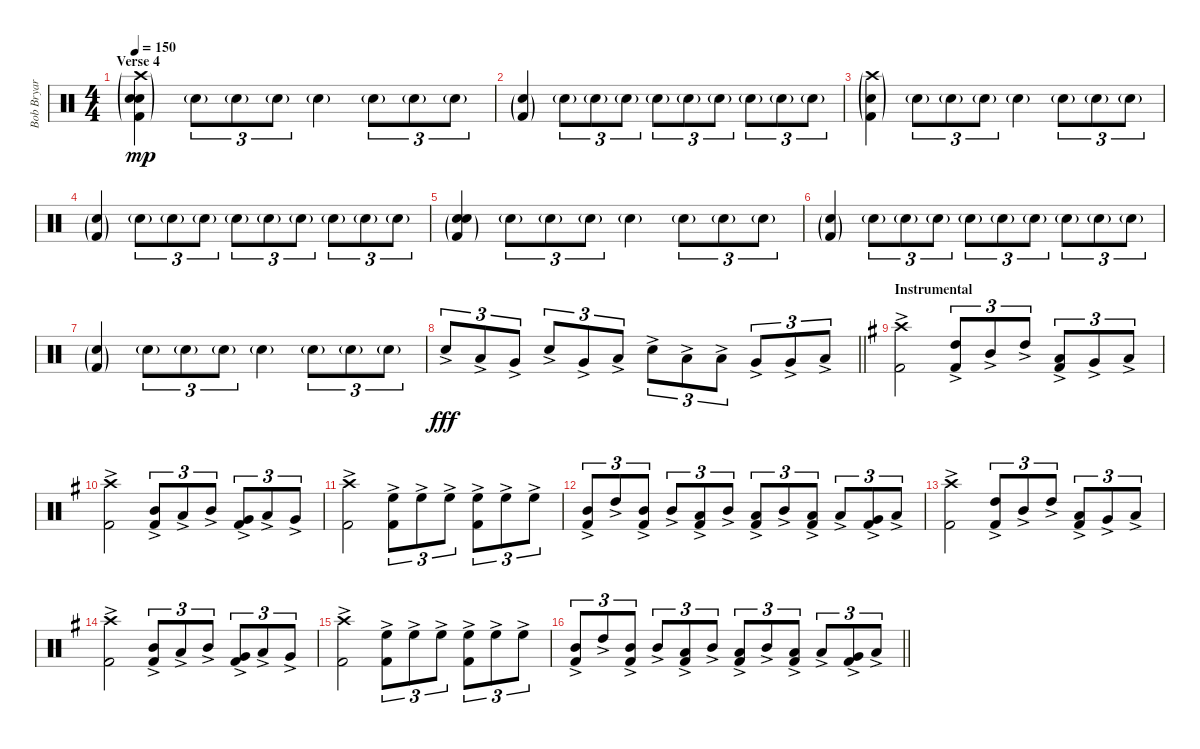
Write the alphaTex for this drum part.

\track ("Bob Bryar (percussion)" "Bob Bryar ") {instrument percussion}
\staff {score}
\articulation defaults
\ts (4 4)
\section ("" "Verse 4")
\tempo 150
\clef neutral
\ks c
("Crash high (hit)"{g} "Metronome (bell)"{g} "Electric Snare (hit)"{g} "Kick (hit) 2"{g}).4{dy mp volume 11} "Electric Snare (hit)"{g}.8{tu (3 2)} "Electric Snare (hit)"{g}.8{tu (3 2)} "Electric Snare (hit)"{g}.8{tu (3 2)} "Electric Snare (hit)"{g}.4 "Electric Snare (hit)"{g}.8{tu (3 2)} "Electric Snare (hit)"{g}.8{tu (3 2)} "Electric Snare (hit)"{g}.8{tu (3 2)} |
("Electric Snare (hit)"{g} "Kick (hit) 2"{g}).4 "Electric Snare (hit)"{g}.8{tu (3 2)} "Electric Snare (hit)"{g}.8{tu (3 2)} "Electric Snare (hit)"{g}.8{tu (3 2)} "Electric Snare (hit)"{g}.8{tu (3 2)} "Electric Snare (hit)"{g}.8{tu (3 2)} "Electric Snare (hit)"{g}.8{tu (3 2)} "Electric Snare (hit)"{g}.8{tu (3 2)} "Electric Snare (hit)"{g}.8{tu (3 2)} "Electric Snare (hit)"{g}.8{tu (3 2)} |
("Crash high (hit)"{g} "Electric Snare (hit)"{g} "Kick (hit) 2"{g}).4 "Electric Snare (hit)"{g}.8{tu (3 2)} "Electric Snare (hit)"{g}.8{tu (3 2)} "Electric Snare (hit)"{g}.8{tu (3 2)} "Electric Snare (hit)"{g}.4 "Electric Snare (hit)"{g}.8{tu (3 2)} "Electric Snare (hit)"{g}.8{tu (3 2)} "Electric Snare (hit)"{g}.8{tu (3 2)} |
("Electric Snare (hit)"{g} "Kick (hit) 2"{g}).4 "Electric Snare (hit)"{g}.8{tu (3 2)} "Electric Snare (hit)"{g}.8{tu (3 2)} "Electric Snare (hit)"{g}.8{tu (3 2)} "Electric Snare (hit)"{g}.8{tu (3 2)} "Electric Snare (hit)"{g}.8{tu (3 2)} "Electric Snare (hit)"{g}.8{tu (3 2)} "Electric Snare (hit)"{g}.8{tu (3 2)} "Electric Snare (hit)"{g}.8{tu (3 2)} "Electric Snare (hit)"{g}.8{tu (3 2)} |
("Metronome (bell)"{g} "Electric Snare (hit)"{g} "Kick (hit) 2"{g}).4 "Electric Snare (hit)"{g}.8{tu (3 2)} "Electric Snare (hit)"{g}.8{tu (3 2)} "Electric Snare (hit)"{g}.8{tu (3 2)} "Electric Snare (hit)"{g}.4 "Electric Snare (hit)"{g}.8{tu (3 2)} "Electric Snare (hit)"{g}.8{tu (3 2)} "Electric Snare (hit)"{g}.8{tu (3 2)} |
("Electric Snare (hit)"{g} "Kick (hit) 2"{g}).4 "Electric Snare (hit)"{g}.8{tu (3 2)} "Electric Snare (hit)"{g}.8{tu (3 2)} "Electric Snare (hit)"{g}.8{tu (3 2)} "Electric Snare (hit)"{g}.8{tu (3 2)} "Electric Snare (hit)"{g}.8{tu (3 2)} "Electric Snare (hit)"{g}.8{tu (3 2)} "Electric Snare (hit)"{g}.8{tu (3 2)} "Electric Snare (hit)"{g}.8{tu (3 2)} "Electric Snare (hit)"{g}.8{tu (3 2)} |
("Electric Snare (hit)"{g} "Kick (hit) 2"{g}).4 "Electric Snare (hit)"{g}.8{tu (3 2)} "Electric Snare (hit)"{g}.8{tu (3 2)} "Electric Snare (hit)"{g}.8{tu (3 2)} "Electric Snare (hit)"{g}.4 "Electric Snare (hit)"{g}.8{tu (3 2)} "Electric Snare (hit)"{g}.8{tu (3 2)} "Electric Snare (hit)"{g}.8{tu (3 2)} |
\barLineRight lightlight "Electric Snare (hit)"{ac}.8{tu (3 2) dy fff volume 11} "Low Tom (hit)"{ac}.8{tu (3 2)} "Very Low Tom (hit)"{ac}.8{tu (3 2)} "Electric Snare (hit)"{ac}.8{tu (3 2)} "Very Low Tom (hit)"{ac}.8{tu (3 2)} "Low Floor Tom (hit)"{ac}.8{tu (3 2)} "Electric Snare (hit)"{ac}.8{tu (3 2)} "Low Tom (hit)"{ac}.8{tu (3 2)} "Low Tom (hit)"{ac}.8{tu (3 2)} "Very Low Tom (hit)"{ac}.8{tu (3 2)} "Very Low Tom (hit)"{ac}.8{tu (3 2)} "Low Floor Tom (hit)"{ac}.8{tu (3 2)}
|
\section ("" "Instrumental")
\ks eminor
("Crash high (hit)"{ac} "Kick (hit) 2"{ac}).2 ("High Tom (hit)"{ac} "Kick (hit) 2"{ac}).8{tu (3 2)} "Mid Tom (hit)"{ac}.8{tu (3 2)} "High Tom (hit)"{ac}.8{tu (3 2)} ("Low Tom (hit)"{ac} "Kick (hit) 2"{ac}).8{tu (3 2)} "Very Low Tom (hit)"{ac}.8{tu (3 2)} "Low Tom (hit)"{ac}.8{tu (3 2)} |
("Crash high (hit)"{ac} "Kick (hit) 2"{ac}).2 ("Mid Tom (hit)"{ac} "Kick (hit) 2"{ac}).8{tu (3 2)} "Low Tom (hit)"{ac}.8{tu (3 2)} "Mid Tom (hit)"{ac}.8{tu (3 2)} ("Very Low Tom (hit)"{ac} "Kick (hit) 2"{ac}).8{tu (3 2)} "Low Tom (hit)"{ac}.8{tu (3 2)} "Very Low Tom (hit)"{ac}.8{tu (3 2)} |
("Crash high (hit)"{ac} "Kick (hit) 2"{ac}).2 ("High Floor Tom (hit)"{ac} "Kick (hit) 2"{ac}).8{tu (3 2)} "High Floor Tom (hit)"{ac}.8{tu (3 2)} "High Floor Tom (hit)"{ac}.8{tu (3 2)} ("High Floor Tom (hit)"{ac} "Kick (hit) 2"{ac}).8{tu (3 2)} "High Floor Tom (hit)"{ac}.8{tu (3 2)} "High Floor Tom (hit)"{ac}.8{tu (3 2)} |
("Mid Tom (hit)"{ac} "Kick (hit) 2"{ac}).8{tu (3 2)} "High Tom (hit)"{ac}.8{tu (3 2)} ("Mid Tom (hit)"{ac} "Kick (hit) 2"{ac}).8{tu (3 2)} "Mid Tom (hit)"{ac}.8{tu (3 2)} ("Low Tom (hit)"{ac} "Kick (hit) 2"{ac}).8{tu (3 2)} "Mid Tom (hit)"{ac}.8{tu (3 2)} ("Low Tom (hit)"{ac} "Kick (hit) 2"{ac}).8{tu (3 2)} "Mid Tom (hit)"{ac}.8{tu (3 2)} ("Low Tom (hit)"{ac} "Kick (hit) 2"{ac}).8{tu (3 2)} "Low Tom (hit)"{ac}.8{tu (3 2)} ("Very Low Tom (hit)"{ac} "Kick (hit) 2"{ac}).8{tu (3 2)} "Low Tom (hit)"{ac}.8{tu (3 2)} |
("Crash high (hit)"{ac} "Kick (hit) 2"{ac}).2 ("High Tom (hit)"{ac} "Kick (hit) 2"{ac}).8{tu (3 2)} "Mid Tom (hit)"{ac}.8{tu (3 2)} "High Tom (hit)"{ac}.8{tu (3 2)} ("Low Tom (hit)"{ac} "Kick (hit) 2"{ac}).8{tu (3 2)} "Very Low Tom (hit)"{ac}.8{tu (3 2)} "Low Tom (hit)"{ac}.8{tu (3 2)} |
("Crash high (hit)"{ac} "Kick (hit) 2"{ac}).2 ("Mid Tom (hit)"{ac} "Kick (hit) 2"{ac}).8{tu (3 2)} "Low Tom (hit)"{ac}.8{tu (3 2)} "Mid Tom (hit)"{ac}.8{tu (3 2)} ("Very Low Tom (hit)"{ac} "Kick (hit) 2"{ac}).8{tu (3 2)} "Low Tom (hit)"{ac}.8{tu (3 2)} "Very Low Tom (hit)"{ac}.8{tu (3 2)} |
("Crash high (hit)"{ac} "Kick (hit) 2"{ac}).2 ("High Floor Tom (hit)"{ac} "Kick (hit) 2"{ac}).8{tu (3 2)} "High Floor Tom (hit)"{ac}.8{tu (3 2)} "High Floor Tom (hit)"{ac}.8{tu (3 2)} ("High Floor Tom (hit)"{ac} "Kick (hit) 2"{ac}).8{tu (3 2)} "High Floor Tom (hit)"{ac}.8{tu (3 2)} "High Floor Tom (hit)"{ac}.8{tu (3 2)} |
\barLineRight lightlight
("Mid Tom (hit)"{ac} "Kick (hit) 2"{ac}).8{tu (3 2)} "High Tom (hit)"{ac}.8{tu (3 2)} ("Mid Tom (hit)"{ac} "Kick (hit) 2"{ac}).8{tu (3 2)} "Mid Tom (hit)"{ac}.8{tu (3 2)} ("Low Tom (hit)"{ac} "Kick (hit) 2"{ac}).8{tu (3 2)} "Mid Tom (hit)"{ac}.8{tu (3 2)} ("Low Tom (hit)"{ac} "Kick (hit) 2"{ac}).8{tu (3 2)} "Mid Tom (hit)"{ac}.8{tu (3 2)} ("Low Tom (hit)"{ac} "Kick (hit) 2"{ac}).8{tu (3 2)} "Low Tom (hit)"{ac}.8{tu (3 2)} ("Very Low Tom (hit)"{ac} "Kick (hit) 2"{ac}).8{tu (3 2)} "Low Tom (hit)"{ac}.8{tu (3 2)}
